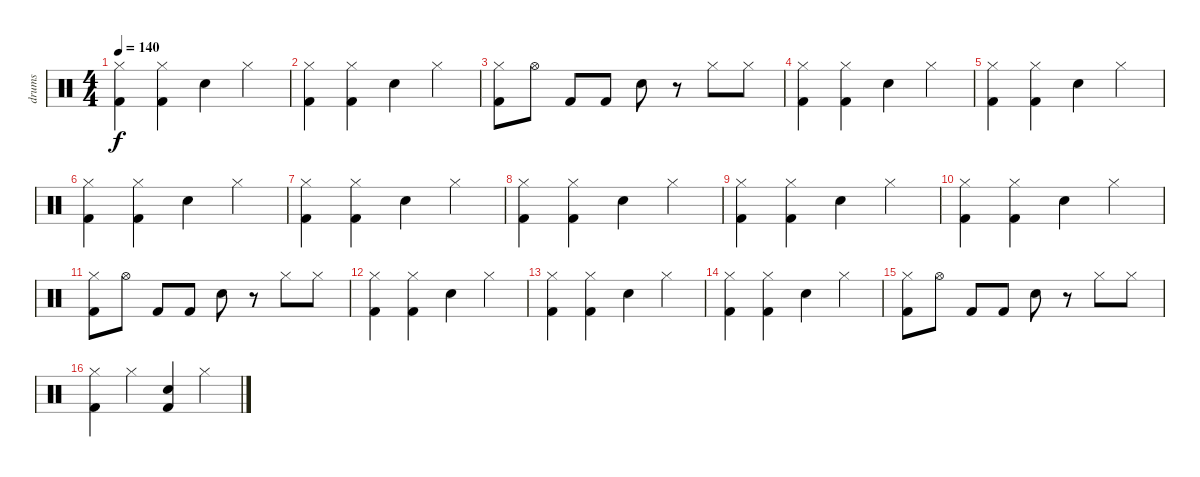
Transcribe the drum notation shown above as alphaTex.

\track ("drums" "drums") {instrument percussion}
\staff {score}
\articulation defaults
\ts (4 4)
\tempo 140
\clef neutral
\ks c
("Hi-Hat (closed)" "Kick (hit) 2").4{dy f} ("Hi-Hat (closed)" "Kick (hit) 2").4 "Snare (hit) 2".4 "Hi-Hat (closed)".4 |
("Hi-Hat (closed)" "Kick (hit) 2").4 ("Hi-Hat (closed)" "Kick (hit) 2").4 "Snare (hit) 2".4 "Hi-Hat (closed)".4 |
("Hi-Hat (closed)" "Kick (hit) 2").8 "Hi-Hat (open)".8 "Kick (hit) 2".8 "Kick (hit) 2".8 "Snare (hit) 2".8 r.8 "Hi-Hat (closed)".8 "Hi-Hat (closed)".8 |
("Hi-Hat (closed)" "Kick (hit) 2").4 ("Hi-Hat (closed)" "Kick (hit) 2").4 "Snare (hit) 2".4 "Hi-Hat (closed)".4 |
("Hi-Hat (closed)" "Kick (hit) 2").4 ("Hi-Hat (closed)" "Kick (hit) 2").4 "Snare (hit) 2".4 "Hi-Hat (closed)".4 |
("Hi-Hat (closed)" "Kick (hit) 2").4 ("Hi-Hat (closed)" "Kick (hit) 2").4 "Snare (hit) 2".4 "Hi-Hat (closed)".4 |
("Hi-Hat (closed)" "Kick (hit) 2").4 ("Hi-Hat (closed)" "Kick (hit) 2").4 "Snare (hit) 2".4 "Hi-Hat (closed)".4 |
("Hi-Hat (closed)" "Kick (hit) 2").4 ("Hi-Hat (closed)" "Kick (hit) 2").4 "Snare (hit) 2".4 "Hi-Hat (closed)".4 |
("Hi-Hat (closed)" "Kick (hit) 2").4 ("Hi-Hat (closed)" "Kick (hit) 2").4 "Snare (hit) 2".4 "Hi-Hat (closed)".4 |
("Hi-Hat (closed)" "Kick (hit) 2").4 ("Hi-Hat (closed)" "Kick (hit) 2").4 "Snare (hit) 2".4 "Hi-Hat (closed)".4 |
("Hi-Hat (closed)" "Kick (hit) 2").8 "Hi-Hat (open)".8 "Kick (hit) 2".8 "Kick (hit) 2".8 "Snare (hit) 2".8 r.8 "Hi-Hat (closed)".8 "Hi-Hat (closed)".8 |
("Hi-Hat (closed)" "Kick (hit) 2").4 ("Hi-Hat (closed)" "Kick (hit) 2").4 "Snare (hit) 2".4 "Hi-Hat (closed)".4 |
("Hi-Hat (closed)" "Kick (hit) 2").4 ("Hi-Hat (closed)" "Kick (hit) 2").4 "Snare (hit) 2".4 "Hi-Hat (closed)".4 |
("Hi-Hat (closed)" "Kick (hit) 2").4 ("Hi-Hat (closed)" "Kick (hit) 2").4 "Snare (hit) 2".4 "Hi-Hat (closed)".4 |
("Hi-Hat (closed)" "Kick (hit) 2").8 "Hi-Hat (open)".8 "Kick (hit) 2".8 "Kick (hit) 2".8 "Snare (hit) 2".8 r.8 "Hi-Hat (closed)".8 "Hi-Hat (closed)".8 |
("Hi-Hat (closed)" "Kick (hit) 2").4 "Hi-Hat (closed)".4 ("Snare (hit) 2" "Kick (hit) 2").4 "Hi-Hat (closed)".4
